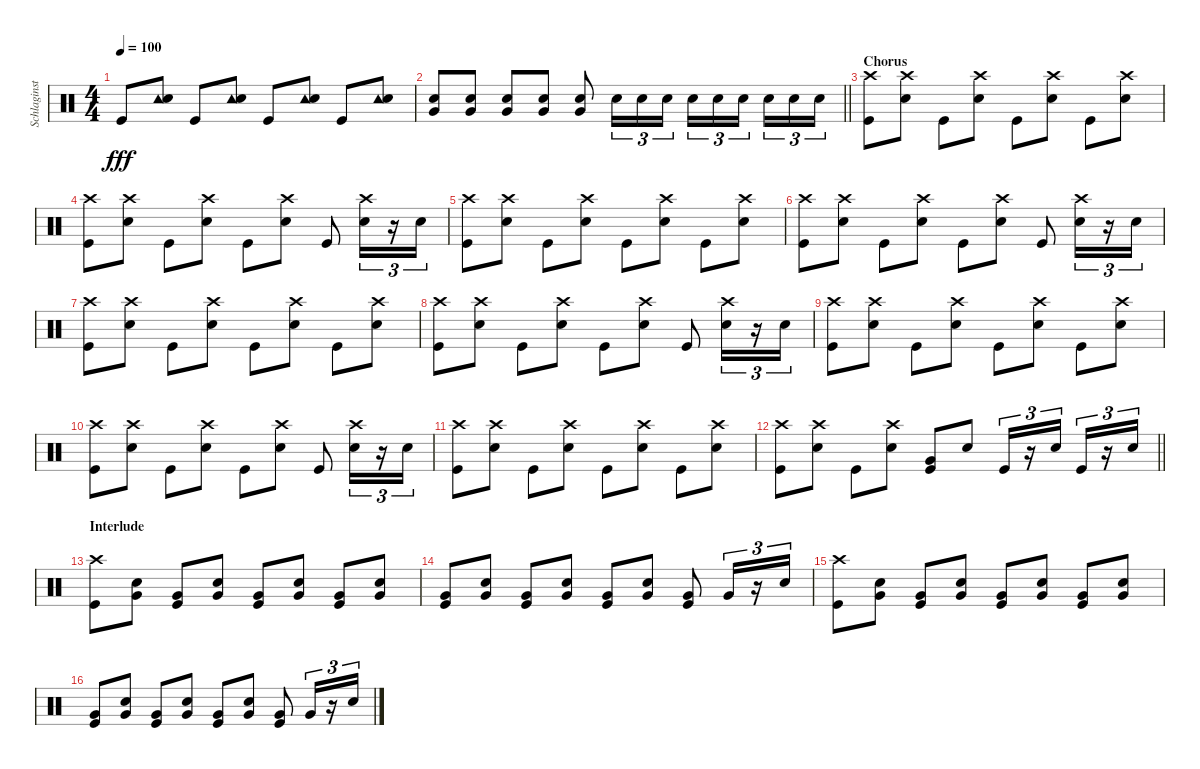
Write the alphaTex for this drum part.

\track ("Schlaginstrumente - Auswahl" "Schlaginst") {instrument percussion}
\staff {score}
\articulation defaults
\ts (4 4)
\tempo 100
\clef neutral
\ks c "Kick (hit)".8{dy fff}
("Tambourine (hit)" "Snare (hit) 2").8 "Kick (hit)".8 ("Tambourine (hit)" "Snare (hit) 2").8 "Kick (hit)".8 ("Tambourine (hit)" "Snare (hit) 2").8 "Kick (hit)".8 ("Tambourine (hit)" "Snare (hit) 2").8 |
\barLineRight lightlight
("Snare (hit) 2" "Very Low Tom (hit)").8 ("Snare (hit) 2" "Very Low Tom (hit)").8 ("Snare (hit) 2" "Very Low Tom (hit)").8 ("Snare (hit) 2" "Very Low Tom (hit)").8 ("Snare (hit) 2" "Very Low Tom (hit)").8 "Snare (hit) 2".16{tu (3 2)} "Snare (hit) 2".16{tu (3 2)} "Snare (hit) 2".16{tu (3 2)} "Snare (hit) 2".16{tu (3 2)} "Snare (hit) 2".16{tu (3 2)} "Snare (hit) 2".16{tu (3 2) beam splitsecondary} "Snare (hit) 2".16{tu (3 2)} "Snare (hit) 2".16{tu (3 2)} "Snare (hit) 2".16{tu (3 2)} |
\section ("" "Chorus")
("Crash high (hit)" "Kick (hit)").8 ("Crash high (hit)" "Snare (hit) 2").8 "Kick (hit)".8 ("Crash high (hit)" "Snare (hit) 2").8 "Kick (hit)".8 ("Crash high (hit)" "Snare (hit) 2").8 "Kick (hit)".8 ("Crash high (hit)" "Snare (hit) 2").8 |
("Crash high (hit)" "Kick (hit)").8 ("Crash high (hit)" "Snare (hit) 2").8 "Kick (hit)".8 ("Crash high (hit)" "Snare (hit) 2").8 "Kick (hit)".8 ("Crash high (hit)" "Snare (hit) 2").8 "Kick (hit)".8 ("Crash high (hit)" "Snare (hit) 2").16{tu (3 2)} r.16{tu (3 2)} "Snare (hit) 2".16{tu (3 2)} |
("Crash high (hit)" "Kick (hit)").8 ("Crash high (hit)" "Snare (hit) 2").8 "Kick (hit)".8 ("Crash high (hit)" "Snare (hit) 2").8 "Kick (hit)".8 ("Crash high (hit)" "Snare (hit) 2").8 "Kick (hit)".8 ("Crash high (hit)" "Snare (hit) 2").8 |
("Crash high (hit)" "Kick (hit)").8 ("Crash high (hit)" "Snare (hit) 2").8 "Kick (hit)".8 ("Crash high (hit)" "Snare (hit) 2").8 "Kick (hit)".8 ("Crash high (hit)" "Snare (hit) 2").8 "Kick (hit)".8 ("Crash high (hit)" "Snare (hit) 2").16{tu (3 2)} r.16{tu (3 2)} "Snare (hit) 2".16{tu (3 2)} |
("Crash high (hit)" "Kick (hit)").8 ("Crash high (hit)" "Snare (hit) 2").8 "Kick (hit)".8 ("Crash high (hit)" "Snare (hit) 2").8 "Kick (hit)".8 ("Crash high (hit)" "Snare (hit) 2").8 "Kick (hit)".8 ("Crash high (hit)" "Snare (hit) 2").8 |
("Crash high (hit)" "Kick (hit)").8 ("Crash high (hit)" "Snare (hit) 2").8 "Kick (hit)".8 ("Crash high (hit)" "Snare (hit) 2").8 "Kick (hit)".8 ("Crash high (hit)" "Snare (hit) 2").8 "Kick (hit)".8 ("Crash high (hit)" "Snare (hit) 2").16{tu (3 2)} r.16{tu (3 2)} "Snare (hit) 2".16{tu (3 2)} |
("Crash high (hit)" "Kick (hit)").8 ("Crash high (hit)" "Snare (hit) 2").8 "Kick (hit)".8 ("Crash high (hit)" "Snare (hit) 2").8 "Kick (hit)".8 ("Crash high (hit)" "Snare (hit) 2").8 "Kick (hit)".8 ("Crash high (hit)" "Snare (hit) 2").8 |
("Crash high (hit)" "Kick (hit)").8 ("Crash high (hit)" "Snare (hit) 2").8 "Kick (hit)".8 ("Crash high (hit)" "Snare (hit) 2").8 "Kick (hit)".8 ("Crash high (hit)" "Snare (hit) 2").8 "Kick (hit)".8 ("Crash high (hit)" "Snare (hit) 2").16{tu (3 2)} r.16{tu (3 2)} "Snare (hit) 2".16{tu (3 2)} |
("Crash high (hit)" "Kick (hit)").8 ("Crash high (hit)" "Snare (hit) 2").8 "Kick (hit)".8 ("Crash high (hit)" "Snare (hit) 2").8 "Kick (hit)".8 ("Crash high (hit)" "Snare (hit) 2").8 "Kick (hit)".8 ("Crash high (hit)" "Snare (hit) 2").8 |
\barLineRight lightlight
("Crash high (hit)" "Kick (hit)").8 ("Crash high (hit)" "Snare (hit) 2").8 "Kick (hit)".8 ("Crash high (hit)" "Snare (hit) 2").8 ("Very Low Tom (hit)" "Kick (hit)").8 "Snare (hit) 2".8 "Kick (hit)".16{tu (3 2)} r.16{tu (3 2)} "Snare (hit) 2".16{tu (3 2)} "Kick (hit)".16{tu (3 2)} r.16{tu (3 2)} "Snare (hit) 2".16{tu (3 2)} |
\section ("" "Interlude")
("Crash high (hit)" "Kick (hit)").8 ("Very Low Tom (hit)" "Snare (hit) 2").8 ("Very Low Tom (hit)" "Kick (hit)").8 ("Very Low Tom (hit)" "Snare (hit) 2").8 ("Very Low Tom (hit)" "Kick (hit)").8 ("Very Low Tom (hit)" "Snare (hit) 2").8 ("Very Low Tom (hit)" "Kick (hit)").8 ("Very Low Tom (hit)" "Snare (hit) 2").8 |
("Very Low Tom (hit)" "Kick (hit)").8 ("Very Low Tom (hit)" "Snare (hit) 2").8 ("Very Low Tom (hit)" "Kick (hit)").8 ("Very Low Tom (hit)" "Snare (hit) 2").8 ("Very Low Tom (hit)" "Kick (hit)").8 ("Very Low Tom (hit)" "Snare (hit) 2").8 ("Very Low Tom (hit)" "Kick (hit)").8 "Very Low Tom (hit)".16{tu (3 2)} r.16{tu (3 2)} "Snare (hit) 2".16{tu (3 2)} |
("Crash high (hit)" "Kick (hit)").8 ("Very Low Tom (hit)" "Snare (hit) 2").8 ("Very Low Tom (hit)" "Kick (hit)").8 ("Very Low Tom (hit)" "Snare (hit) 2").8 ("Very Low Tom (hit)" "Kick (hit)").8 ("Very Low Tom (hit)" "Snare (hit) 2").8 ("Very Low Tom (hit)" "Kick (hit)").8 ("Very Low Tom (hit)" "Snare (hit) 2").8 |
("Very Low Tom (hit)" "Kick (hit)").8 ("Very Low Tom (hit)" "Snare (hit) 2").8 ("Very Low Tom (hit)" "Kick (hit)").8 ("Very Low Tom (hit)" "Snare (hit) 2").8 ("Very Low Tom (hit)" "Kick (hit)").8 ("Very Low Tom (hit)" "Snare (hit) 2").8 ("Very Low Tom (hit)" "Kick (hit)").8 "Very Low Tom (hit)".16{tu (3 2)} r.16{tu (3 2)} "Snare (hit) 2".16{tu (3 2)}
